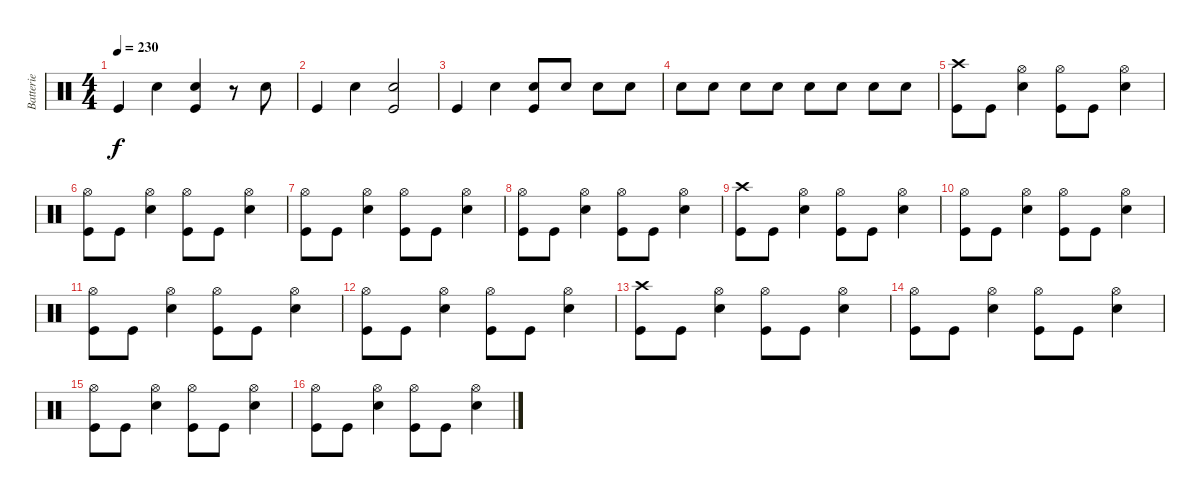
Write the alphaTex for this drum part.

\track ("Batterie" "Batterie") {instrument percussion}
\staff {score}
\articulation defaults
\ts (4 4)
\tempo 230
\clef neutral
\ks c "Kick (hit)".4{dy f} "Snare (hit) 2".4
("Snare (hit) 2" "Kick (hit)").4 r.8 "Snare (hit) 2".8 |
"Kick (hit)".4 "Snare (hit) 2".4 ("Snare (hit) 2" "Kick (hit)").2 |
"Kick (hit)".4 "Snare (hit) 2".4 ("Snare (hit) 2" "Kick (hit)").8 "Snare (hit) 2".8 "Snare (hit) 2".8 "Snare (hit) 2".8 |
"Snare (hit) 2".8 "Snare (hit) 2".8 "Snare (hit) 2".8 "Snare (hit) 2".8 "Snare (hit) 2".8 "Snare (hit) 2".8 "Snare (hit) 2".8 "Snare (hit) 2".8 |
("Crash high (hit)" "Kick (hit)").8 "Kick (hit)".8 ("Hi-Hat (open)" "Snare (hit) 2").4 ("Hi-Hat (open)" "Kick (hit)").8 "Kick (hit)".8 ("Hi-Hat (open)" "Snare (hit) 2").4 |
("Hi-Hat (open)" "Kick (hit)").8 "Kick (hit)".8 ("Hi-Hat (open)" "Snare (hit) 2").4 ("Hi-Hat (open)" "Kick (hit)").8 "Kick (hit)".8 ("Hi-Hat (open)" "Snare (hit) 2").4 |
("Hi-Hat (open)" "Kick (hit)").8 "Kick (hit)".8 ("Hi-Hat (open)" "Snare (hit) 2").4 ("Hi-Hat (open)" "Kick (hit)").8 "Kick (hit)".8 ("Hi-Hat (open)" "Snare (hit) 2").4 |
("Hi-Hat (open)" "Kick (hit)").8 "Kick (hit)".8 ("Hi-Hat (open)" "Snare (hit) 2").4 ("Hi-Hat (open)" "Kick (hit)").8 "Kick (hit)".8 ("Hi-Hat (open)" "Snare (hit) 2").4 |
("Crash high (hit)" "Kick (hit)").8 "Kick (hit)".8 ("Hi-Hat (open)" "Snare (hit) 2").4 ("Hi-Hat (open)" "Kick (hit)").8 "Kick (hit)".8 ("Hi-Hat (open)" "Snare (hit) 2").4 |
("Hi-Hat (open)" "Kick (hit)").8 "Kick (hit)".8 ("Hi-Hat (open)" "Snare (hit) 2").4 ("Hi-Hat (open)" "Kick (hit)").8 "Kick (hit)".8 ("Hi-Hat (open)" "Snare (hit) 2").4 |
("Hi-Hat (open)" "Kick (hit)").8 "Kick (hit)".8 ("Hi-Hat (open)" "Snare (hit) 2").4 ("Hi-Hat (open)" "Kick (hit)").8 "Kick (hit)".8 ("Hi-Hat (open)" "Snare (hit) 2").4 |
("Hi-Hat (open)" "Kick (hit)").8 "Kick (hit)".8 ("Hi-Hat (open)" "Snare (hit) 2").4 ("Hi-Hat (open)" "Kick (hit)").8 "Kick (hit)".8 ("Hi-Hat (open)" "Snare (hit) 2").4 |
("Crash high (hit)" "Kick (hit)").8 "Kick (hit)".8 ("Hi-Hat (open)" "Snare (hit) 2").4 ("Hi-Hat (open)" "Kick (hit)").8 "Kick (hit)".8 ("Hi-Hat (open)" "Snare (hit) 2").4 |
("Hi-Hat (open)" "Kick (hit)").8 "Kick (hit)".8 ("Hi-Hat (open)" "Snare (hit) 2").4 ("Hi-Hat (open)" "Kick (hit)").8 "Kick (hit)".8 ("Hi-Hat (open)" "Snare (hit) 2").4 |
("Hi-Hat (open)" "Kick (hit)").8 "Kick (hit)".8 ("Hi-Hat (open)" "Snare (hit) 2").4 ("Hi-Hat (open)" "Kick (hit)").8 "Kick (hit)".8 ("Hi-Hat (open)" "Snare (hit) 2").4 |
("Hi-Hat (open)" "Kick (hit)").8 "Kick (hit)".8 ("Hi-Hat (open)" "Snare (hit) 2").4 ("Hi-Hat (open)" "Kick (hit)").8 "Kick (hit)".8 ("Hi-Hat (open)" "Snare (hit) 2").4
